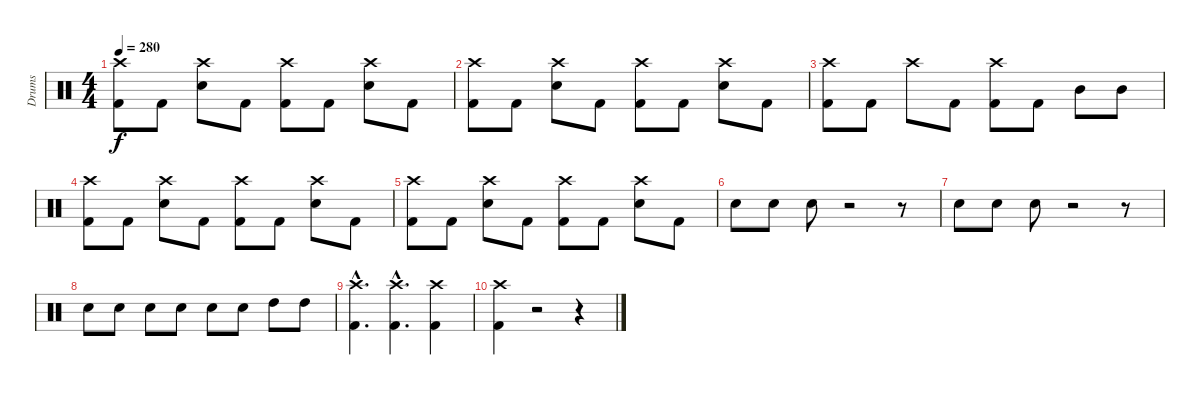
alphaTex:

\track ("Drums" "Drums") {instrument percussion}
\staff {score}
\articulation defaults
\ts (4 4)
\tempo 280
\clef neutral
\ks c
("Kick (hit) 2" "Crash high (hit)").8{dy f} "Kick (hit) 2".8 ("Crash high (hit)" "Snare (hit) 2").8 "Kick (hit) 2".8 ("Kick (hit) 2" "Crash high (hit)").8 "Kick (hit) 2".8 ("Crash high (hit)" "Snare (hit) 2").8 "Kick (hit) 2".8 |
("Kick (hit) 2" "Crash high (hit)").8 "Kick (hit) 2".8 ("Crash high (hit)" "Snare (hit) 2").8 "Kick (hit) 2".8 ("Kick (hit) 2" "Crash high (hit)").8 "Kick (hit) 2".8 ("Crash high (hit)" "Snare (hit) 2").8 "Kick (hit) 2".8 |
("Crash high (hit)" "Kick (hit) 2").8 "Kick (hit) 2".8 "Crash high (hit)".8 "Kick (hit) 2".8 ("Crash high (hit)" "Kick (hit) 2").8 "Kick (hit) 2".8 "Mid Tom (hit)".8 "Mid Tom (hit)".8 |
("Kick (hit) 2" "Crash high (hit)").8 "Kick (hit) 2".8 ("Crash high (hit)" "Snare (hit) 2").8 "Kick (hit) 2".8 ("Kick (hit) 2" "Crash high (hit)").8 "Kick (hit) 2".8 ("Crash high (hit)" "Snare (hit) 2").8 "Kick (hit) 2".8 |
("Kick (hit) 2" "Crash high (hit)").8 "Kick (hit) 2".8 ("Crash high (hit)" "Snare (hit) 2").8 "Kick (hit) 2".8 ("Kick (hit) 2" "Crash high (hit)").8 "Kick (hit) 2".8 ("Crash high (hit)" "Snare (hit) 2").8 "Kick (hit) 2".8 |
"Snare (hit) 2".8 "Snare (hit) 2".8 "Snare (hit) 2".8 r.2 r.8 |
"Snare (hit) 2".8 "Snare (hit) 2".8 "Snare (hit) 2".8 r.2 r.8 |
"Snare (hit) 2".8 "Snare (hit) 2".8 "Snare (hit) 2".8 "Snare (hit) 2".8 "Snare (hit) 2".8 "Snare (hit) 2".8 "High Tom (hit)".8 "High Tom (hit)".8 |
("Kick (hit) 2"{hac} "Crash high (hit)"{hac}).4{d} ("Kick (hit) 2"{hac} "Crash high (hit)"{hac}).4{d} ("Kick (hit) 2" "Crash high (hit)").4 |
("Kick (hit) 2" "Crash high (hit)").4 r.2 r.4
